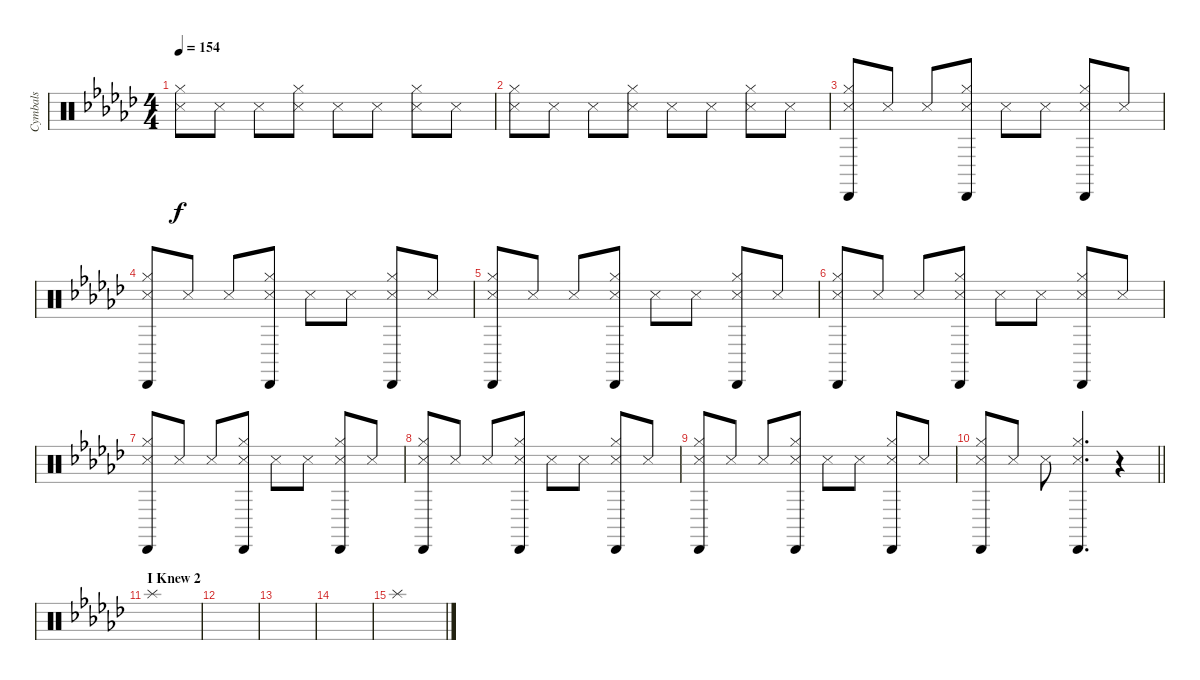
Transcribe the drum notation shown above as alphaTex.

\track ("Cymbals" "Cymbals") {instrument percussion}
\staff {score}
\articulation defaults
\ts (4 4)
\tempo 154
\clef neutral
\ks gb
("Hi-Hat (closed)" "Metronome (hit)").8{dy f} "Metronome (hit)".8 "Metronome (hit)".8 ("Hi-Hat (closed)" "Metronome (hit)").8 "Metronome (hit)".8 "Metronome (hit)".8 ("Hi-Hat (closed)" "Metronome (hit)").8 "Metronome (hit)".8 |
("Hi-Hat (closed)" "Metronome (hit)").8 "Metronome (hit)".8 "Metronome (hit)".8 ("Hi-Hat (closed)" "Metronome (hit)").8 "Metronome (hit)".8 "Metronome (hit)".8 ("Hi-Hat (closed)" "Metronome (hit)").8 "Metronome (hit)".8 |
("Cabasa (hit)" "Hi-Hat (closed)" "Metronome (hit)").8 "Metronome (hit)".8 "Metronome (hit)".8 ("Cabasa (hit)" "Hi-Hat (closed)" "Metronome (hit)").8 "Metronome (hit)".8 "Metronome (hit)".8 ("Cabasa (hit)" "Hi-Hat (closed)" "Metronome (hit)").8 "Metronome (hit)".8 |
("Cabasa (hit)" "Hi-Hat (closed)" "Metronome (hit)").8 "Metronome (hit)".8 "Metronome (hit)".8 ("Cabasa (hit)" "Hi-Hat (closed)" "Metronome (hit)").8 "Metronome (hit)".8 "Metronome (hit)".8 ("Cabasa (hit)" "Hi-Hat (closed)" "Metronome (hit)").8 "Metronome (hit)".8 |
("Cabasa (hit)" "Hi-Hat (closed)" "Metronome (hit)").8 "Metronome (hit)".8 "Metronome (hit)".8 ("Cabasa (hit)" "Hi-Hat (closed)" "Metronome (hit)").8 "Metronome (hit)".8 "Metronome (hit)".8 ("Cabasa (hit)" "Hi-Hat (closed)" "Metronome (hit)").8 "Metronome (hit)".8 |
("Cabasa (hit)" "Hi-Hat (closed)" "Metronome (hit)").8 "Metronome (hit)".8 "Metronome (hit)".8 ("Cabasa (hit)" "Hi-Hat (closed)" "Metronome (hit)").8 "Metronome (hit)".8 "Metronome (hit)".8 ("Cabasa (hit)" "Hi-Hat (closed)" "Metronome (hit)").8 "Metronome (hit)".8 |
("Cabasa (hit)" "Hi-Hat (closed)" "Metronome (hit)").8 "Metronome (hit)".8 "Metronome (hit)".8 ("Cabasa (hit)" "Hi-Hat (closed)" "Metronome (hit)").8 "Metronome (hit)".8 "Metronome (hit)".8 ("Cabasa (hit)" "Hi-Hat (closed)" "Metronome (hit)").8 "Metronome (hit)".8 |
("Cabasa (hit)" "Hi-Hat (closed)" "Metronome (hit)").8 "Metronome (hit)".8 "Metronome (hit)".8 ("Cabasa (hit)" "Hi-Hat (closed)" "Metronome (hit)").8 "Metronome (hit)".8 "Metronome (hit)".8 ("Cabasa (hit)" "Hi-Hat (closed)" "Metronome (hit)").8 "Metronome (hit)".8 |
("Cabasa (hit)" "Hi-Hat (closed)" "Metronome (hit)").8 "Metronome (hit)".8 "Metronome (hit)".8 ("Cabasa (hit)" "Hi-Hat (closed)" "Metronome (hit)").8 "Metronome (hit)".8 "Metronome (hit)".8 ("Cabasa (hit)" "Hi-Hat (closed)" "Metronome (hit)").8 "Metronome (hit)".8 |
\barLineRight lightlight
("Metronome (hit)" "Cabasa (hit)" "Hi-Hat (closed)").8 "Metronome (hit)".8 "Metronome (hit)".8 ("Metronome (hit)" "Cabasa (hit)" "Hi-Hat (closed)").4{d} r.4 |
\section ("" "I Knew 2")
"Splash (hit)".1 |
|
|
|
"Splash (hit)".1
